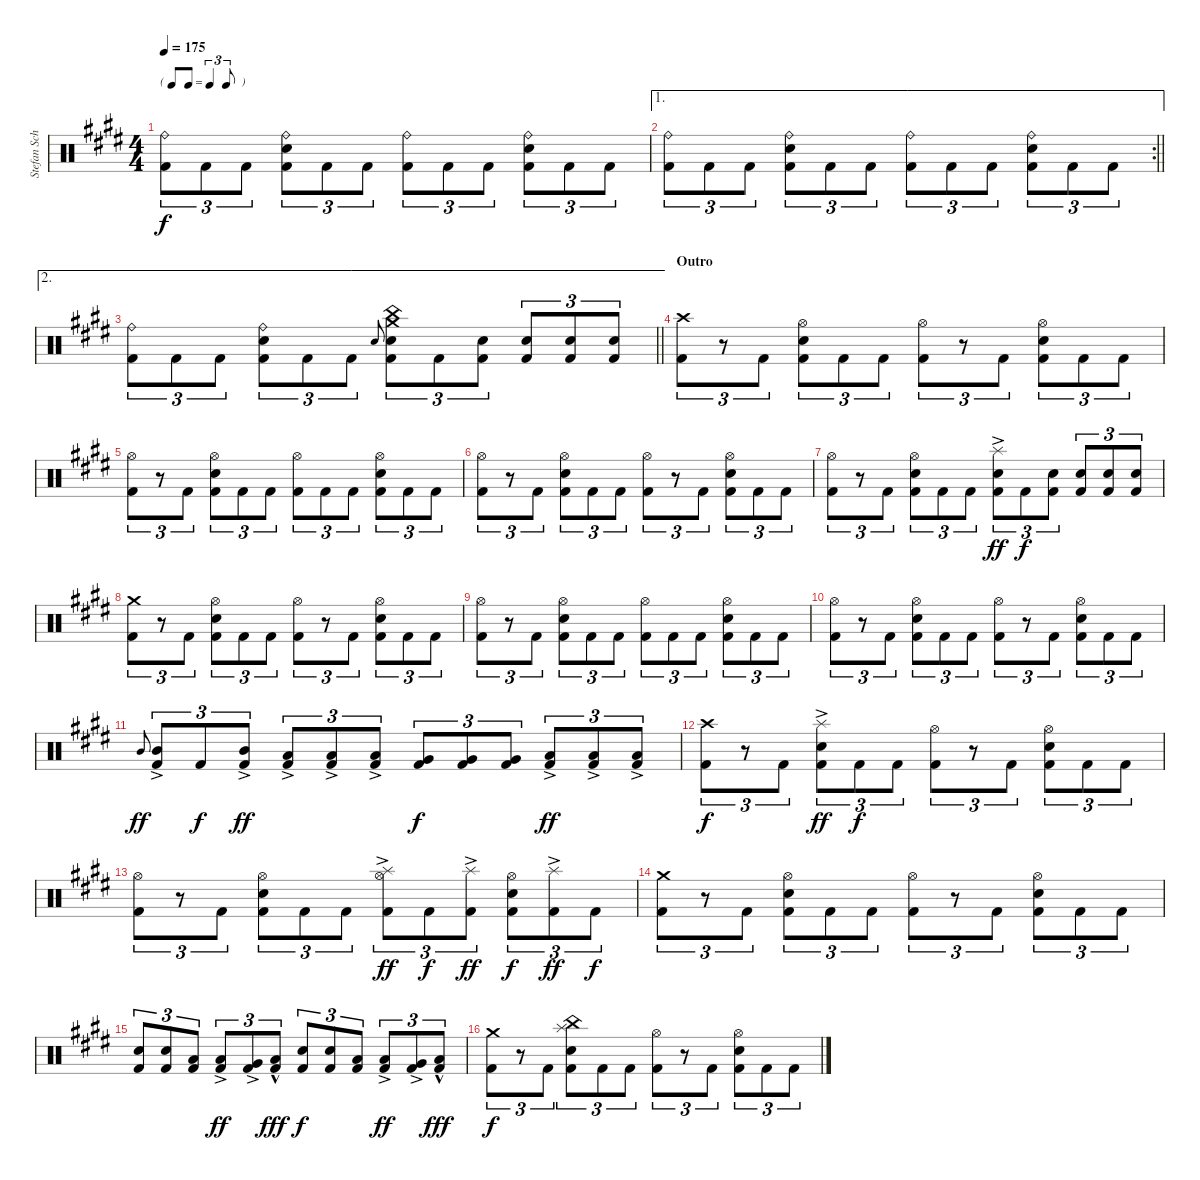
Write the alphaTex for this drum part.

\track ("Stefan Schwarzmann" "Stefan Sch") {instrument percussion}
\staff {score}
\articulation defaults
\ts (4 4)
\tf triplet8th
\tempo 175
\clef neutral
\ks c#minor
("Ride (bell)" "Kick (hit) 2").8{tu (3 2) dy f} "Kick (hit) 2".8{tu (3 2)} "Kick (hit) 2".8{tu (3 2)} ("Ride (bell)" "Snare (hit) 2" "Kick (hit) 2").8{tu (3 2)} "Kick (hit) 2".8{tu (3 2)} "Kick (hit) 2".8{tu (3 2)} ("Ride (bell)" "Kick (hit) 2").8{tu (3 2)} "Kick (hit) 2".8{tu (3 2)} "Kick (hit) 2".8{tu (3 2)} ("Ride (bell)" "Snare (hit) 2" "Kick (hit) 2").8{tu (3 2)} "Kick (hit) 2".8{tu (3 2)} "Kick (hit) 2".8{tu (3 2)} |
\ae 1
\rc 2
\barLineRight lightlight
("Ride (bell)" "Kick (hit) 2").8{tu (3 2)} "Kick (hit) 2".8{tu (3 2)} "Kick (hit) 2".8{tu (3 2)} ("Ride (bell)" "Snare (hit) 2" "Kick (hit) 2").8{tu (3 2)} "Kick (hit) 2".8{tu (3 2)} "Kick (hit) 2".8{tu (3 2)} ("Ride (bell)" "Kick (hit) 2").8{tu (3 2)} "Kick (hit) 2".8{tu (3 2)} "Kick (hit) 2".8{tu (3 2)} ("Ride (bell)" "Snare (hit) 2" "Kick (hit) 2").8{tu (3 2)} "Kick (hit) 2".8{tu (3 2)} "Kick (hit) 2".8{tu (3 2)} |
\ae 2
\barLineRight lightlight
("Ride (bell)" "Kick (hit) 2").8{tu (3 2)} "Kick (hit) 2".8{tu (3 2)} "Kick (hit) 2".8{tu (3 2)} ("Ride (bell)" "Snare (hit) 2" "Kick (hit) 2").8{tu (3 2)} "Kick (hit) 2".8{tu (3 2)} "Kick (hit) 2".8{tu (3 2)} "Snare (hit) 2".8{gr onbeat} ("Crash medium (hit)" "China (hit)" "Snare (hit) 2" "Kick (hit) 2").8{tu (3 2)} "Kick (hit) 2".8{tu (3 2)} ("Snare (hit) 2" "Kick (hit) 2").8{tu (3 2)} ("Snare (hit) 2" "Kick (hit) 2").8{tu (3 2)} ("Snare (hit) 2" "Kick (hit) 2").8{tu (3 2)} ("Snare (hit) 2" "Kick (hit) 2").8{tu (3 2)} |
\section ("" "Outro")
("Crash high (hit)" "Kick (hit) 2").8{tu (3 2)} r.8{tu (3 2)} "Kick (hit) 2".8{tu (3 2)} ("Hi-Hat (open)" "Snare (hit) 2" "Kick (hit) 2").8{tu (3 2)} "Kick (hit) 2".8{tu (3 2)} "Kick (hit) 2".8{tu (3 2)} ("Hi-Hat (open)" "Kick (hit) 2").8{tu (3 2)} r.8{tu (3 2)} "Kick (hit) 2".8{tu (3 2)} ("Hi-Hat (open)" "Snare (hit) 2" "Kick (hit) 2").8{tu (3 2)} "Kick (hit) 2".8{tu (3 2)} "Kick (hit) 2".8{tu (3 2)} |
("Hi-Hat (open)" "Kick (hit) 2").8{tu (3 2)} r.8{tu (3 2)} "Kick (hit) 2".8{tu (3 2)} ("Hi-Hat (open)" "Snare (hit) 2" "Kick (hit) 2").8{tu (3 2)} "Kick (hit) 2".8{tu (3 2)} "Kick (hit) 2".8{tu (3 2)} ("Hi-Hat (open)" "Kick (hit) 2").8{tu (3 2)} "Kick (hit) 2".8{tu (3 2)} "Kick (hit) 2".8{tu (3 2)} ("Hi-Hat (open)" "Snare (hit) 2" "Kick (hit) 2").8{tu (3 2)} "Kick (hit) 2".8{tu (3 2)} "Kick (hit) 2".8{tu (3 2)} |
("Hi-Hat (open)" "Kick (hit) 2").8{tu (3 2)} r.8{tu (3 2)} "Kick (hit) 2".8{tu (3 2)} ("Hi-Hat (open)" "Snare (hit) 2" "Kick (hit) 2").8{tu (3 2)} "Kick (hit) 2".8{tu (3 2)} "Kick (hit) 2".8{tu (3 2)} ("Hi-Hat (open)" "Kick (hit) 2").8{tu (3 2)} r.8{tu (3 2)} "Kick (hit) 2".8{tu (3 2)} ("Hi-Hat (open)" "Snare (hit) 2" "Kick (hit) 2").8{tu (3 2)} "Kick (hit) 2".8{tu (3 2)} "Kick (hit) 2".8{tu (3 2)} |
("Hi-Hat (open)" "Kick (hit) 2").8{tu (3 2)} r.8{tu (3 2)} "Kick (hit) 2".8{tu (3 2)} ("Hi-Hat (open)" "Snare (hit) 2" "Kick (hit) 2").8{tu (3 2)} "Kick (hit) 2".8{tu (3 2)} "Kick (hit) 2".8{tu (3 2)} ("Splash (hit)"{ac} "Snare (hit) 2" "Kick (hit) 2").8{tu (3 2) dy ff} "Kick (hit) 2".8{tu (3 2) dy f} ("Snare (hit) 2" "Kick (hit) 2").8{tu (3 2)} ("Snare (hit) 2" "Kick (hit) 2").8{tu (3 2)} ("Snare (hit) 2" "Kick (hit) 2").8{tu (3 2)} ("Snare (hit) 2" "Kick (hit) 2").8{tu (3 2)} |
("Crash medium (hit)" "Kick (hit) 2").8{tu (3 2)} r.8{tu (3 2)} "Kick (hit) 2".8{tu (3 2)} ("Hi-Hat (open)" "Snare (hit) 2" "Kick (hit) 2").8{tu (3 2)} "Kick (hit) 2".8{tu (3 2)} "Kick (hit) 2".8{tu (3 2)} ("Hi-Hat (open)" "Kick (hit) 2").8{tu (3 2)} r.8{tu (3 2)} "Kick (hit) 2".8{tu (3 2)} ("Hi-Hat (open)" "Snare (hit) 2" "Kick (hit) 2").8{tu (3 2)} "Kick (hit) 2".8{tu (3 2)} "Kick (hit) 2".8{tu (3 2)} |
("Hi-Hat (open)" "Kick (hit) 2").8{tu (3 2)} r.8{tu (3 2)} "Kick (hit) 2".8{tu (3 2)} ("Hi-Hat (open)" "Snare (hit) 2" "Kick (hit) 2").8{tu (3 2)} "Kick (hit) 2".8{tu (3 2)} "Kick (hit) 2".8{tu (3 2)} ("Hi-Hat (open)" "Kick (hit) 2").8{tu (3 2)} "Kick (hit) 2".8{tu (3 2)} "Kick (hit) 2".8{tu (3 2)} ("Hi-Hat (open)" "Snare (hit) 2" "Kick (hit) 2").8{tu (3 2)} "Kick (hit) 2".8{tu (3 2)} "Kick (hit) 2".8{tu (3 2)} |
("Hi-Hat (open)" "Kick (hit) 2").8{tu (3 2)} r.8{tu (3 2)} "Kick (hit) 2".8{tu (3 2)} ("Hi-Hat (open)" "Snare (hit) 2" "Kick (hit) 2").8{tu (3 2)} "Kick (hit) 2".8{tu (3 2)} "Kick (hit) 2".8{tu (3 2)} ("Hi-Hat (open)" "Kick (hit) 2").8{tu (3 2)} r.8{tu (3 2)} "Kick (hit) 2".8{tu (3 2)} ("Hi-Hat (open)" "Snare (hit) 2" "Kick (hit) 2").8{tu (3 2)} "Kick (hit) 2".8{tu (3 2)} "Kick (hit) 2".8{tu (3 2)} |
"Mid Tom (hit)".8{gr onbeat dy ff} ("Mid Tom (hit)"{ac} "Kick (hit) 2").8{tu (3 2)} "Kick (hit) 2".8{tu (3 2) dy f} ("Mid Tom (hit)"{ac} "Kick (hit) 2").8{tu (3 2) dy ff} ("Low Tom (hit)"{ac} "Kick (hit) 2").8{tu (3 2)} ("Low Tom (hit)"{ac} "Kick (hit) 2").8{tu (3 2)} ("Low Tom (hit)"{ac} "Kick (hit) 2").8{tu (3 2)} ("Very Low Tom (hit)" "Kick (hit) 2").8{tu (3 2) dy f} ("Very Low Tom (hit)" "Kick (hit) 2").8{tu (3 2)} ("Very Low Tom (hit)" "Kick (hit) 2").8{tu (3 2)} ("Low Floor Tom (hit)"{ac} "Kick (hit) 2").8{tu (3 2) dy ff} ("Low Floor Tom (hit)"{ac} "Kick (hit) 2").8{tu (3 2)} ("Low Floor Tom (hit)"{ac} "Kick (hit) 2").8{tu (3 2)} |
("Crash high (hit)" "Kick (hit) 2").8{tu (3 2) dy f} r.8{tu (3 2)} "Kick (hit) 2".8{tu (3 2)} ("Splash (hit)"{ac} "Snare (hit) 2" "Kick (hit) 2").8{tu (3 2) dy ff} "Kick (hit) 2".8{tu (3 2) dy f} "Kick (hit) 2".8{tu (3 2)} ("Hi-Hat (open)" "Kick (hit) 2").8{tu (3 2)} r.8{tu (3 2)} "Kick (hit) 2".8{tu (3 2)} ("Hi-Hat (open)" "Snare (hit) 2" "Kick (hit) 2").8{tu (3 2)} "Kick (hit) 2".8{tu (3 2)} "Kick (hit) 2".8{tu (3 2)} |
("Hi-Hat (open)" "Kick (hit) 2").8{tu (3 2)} r.8{tu (3 2)} "Kick (hit) 2".8{tu (3 2)} ("Hi-Hat (open)" "Snare (hit) 2" "Kick (hit) 2").8{tu (3 2)} "Kick (hit) 2".8{tu (3 2)} "Kick (hit) 2".8{tu (3 2)} ("Hi-Hat (open)" "Splash (hit)"{ac} "Kick (hit) 2").8{tu (3 2) dy ff} "Kick (hit) 2".8{tu (3 2) dy f} ("Splash (hit)"{ac} "Kick (hit) 2").8{tu (3 2) dy ff} ("Hi-Hat (open)" "Snare (hit) 2" "Kick (hit) 2").8{tu (3 2) dy f} ("Splash (hit)"{ac} "Kick (hit) 2").8{tu (3 2) dy ff} "Kick (hit) 2".8{tu (3 2) dy f} |
("Crash medium (hit)" "Kick (hit) 2").8{tu (3 2)} r.8{tu (3 2)} "Kick (hit) 2".8{tu (3 2)} ("Hi-Hat (open)" "Snare (hit) 2" "Kick (hit) 2").8{tu (3 2)} "Kick (hit) 2".8{tu (3 2)} "Kick (hit) 2".8{tu (3 2)} ("Hi-Hat (open)" "Kick (hit) 2").8{tu (3 2)} r.8{tu (3 2)} "Kick (hit) 2".8{tu (3 2)} ("Hi-Hat (open)" "Snare (hit) 2" "Kick (hit) 2").8{tu (3 2)} "Kick (hit) 2".8{tu (3 2)} "Kick (hit) 2".8{tu (3 2)} |
("Snare (hit) 2" "Kick (hit) 2").8{tu (3 2)} ("Snare (hit) 2" "Kick (hit) 2").8{tu (3 2)} ("Low Floor Tom (hit)" "Kick (hit) 2").8{tu (3 2)} ("Low Tom (hit)"{ac} "Kick (hit) 2").8{tu (3 2) dy ff} ("Very Low Tom (hit)"{ac} "Kick (hit) 2").8{tu (3 2)} ("Low Floor Tom (hit)"{hac} "Kick (hit) 2").8{tu (3 2) dy fff} ("Snare (hit) 2" "Kick (hit) 2").8{tu (3 2) dy f} ("Snare (hit) 2" "Kick (hit) 2").8{tu (3 2)} ("Low Floor Tom (hit)" "Kick (hit) 2").8{tu (3 2)} ("Low Tom (hit)"{ac} "Kick (hit) 2").8{tu (3 2) dy ff} ("Very Low Tom (hit)"{ac} "Kick (hit) 2").8{tu (3 2)} ("Low Floor Tom (hit)"{hac} "Kick (hit) 2").8{tu (3 2) dy fff} |
("Crash medium (hit)" "Kick (hit) 2").8{tu (3 2) dy f} r.8{tu (3 2)} "Kick (hit) 2".8{tu (3 2)} ("Splash (hit)" "China (hit)" "Snare (hit) 2" "Kick (hit) 2").8{tu (3 2)} "Kick (hit) 2".8{tu (3 2)} "Kick (hit) 2".8{tu (3 2)} ("Hi-Hat (open)" "Kick (hit) 2").8{tu (3 2)} r.8{tu (3 2)} "Kick (hit) 2".8{tu (3 2)} ("Hi-Hat (open)" "Snare (hit) 2" "Kick (hit) 2").8{tu (3 2)} "Kick (hit) 2".8{tu (3 2)} "Kick (hit) 2".8{tu (3 2)}
